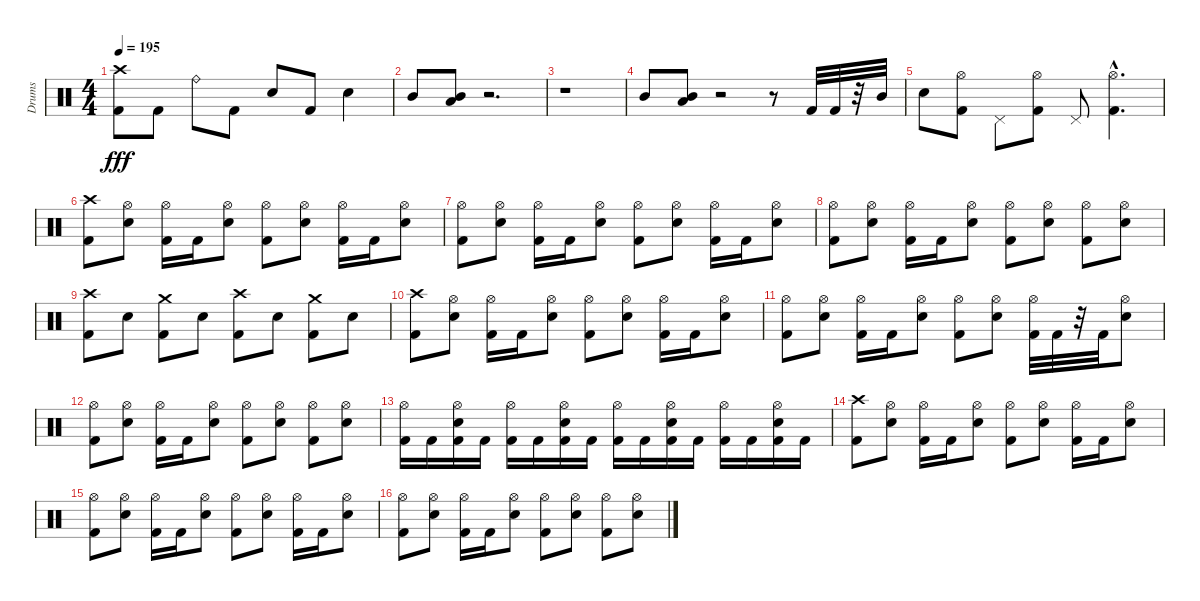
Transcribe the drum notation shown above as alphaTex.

\track ("Drums" "Drums") {instrument percussion}
\staff {score}
\articulation defaults
\ts (4 4)
\tempo 195
\clef neutral
\ks c
("Kick (hit) 2" "Crash high (hit)").8{dy fff} "Kick (hit) 2".8 "Ride (bell)".8 "Kick (hit) 2".8 "Metronome (bell)".8 "Kick (hit) 2".8 "Metronome (bell)".4 |
"Mid Tom (hit)".8 ("Low Tom (hit)" "Mid Tom (hit)").8 r.2{d} |
r.1 |
"Mid Tom (hit)".8 ("Low Tom (hit)" "Mid Tom (hit)").8 r.2 r.8 "Kick (hit) 2".32 "Kick (hit) 2".32 r.32 "Mid Tom (hit)".32 |
"Metronome (bell)".8 ("Kick (hit) 2" "Hi-Hat (open)").8 "Pedal Hi-Hat (hit)".8 ("Kick (hit) 2" "Hi-Hat (open)").8 "Pedal Hi-Hat (hit)".8 ("Kick (hit) 2" "Hi-Hat (open)"{hac}).4{d} |
("Kick (hit) 2" "Crash high (hit)").8 ("Metronome (bell)" "Hi-Hat (open)").8 ("Kick (hit) 2" "Hi-Hat (open)").16 "Kick (hit) 2".16 ("Metronome (bell)" "Hi-Hat (open)").8 ("Kick (hit) 2" "Hi-Hat (open)").8 ("Metronome (bell)" "Hi-Hat (open)").8 ("Kick (hit) 2" "Hi-Hat (open)").16 "Kick (hit) 2".16 ("Metronome (bell)" "Hi-Hat (open)").8 |
("Kick (hit) 2" "Hi-Hat (open)").8 ("Metronome (bell)" "Hi-Hat (open)").8 ("Kick (hit) 2" "Hi-Hat (open)").16 "Kick (hit) 2".16 ("Metronome (bell)" "Hi-Hat (open)").8 ("Kick (hit) 2" "Hi-Hat (open)").8 ("Metronome (bell)" "Hi-Hat (open)").8 ("Kick (hit) 2" "Hi-Hat (open)").16 "Kick (hit) 2".16 ("Metronome (bell)" "Hi-Hat (open)").8 |
("Kick (hit) 2" "Hi-Hat (open)").8 ("Metronome (bell)" "Hi-Hat (open)").8 ("Kick (hit) 2" "Hi-Hat (open)").16 "Kick (hit) 2".16 ("Metronome (bell)" "Hi-Hat (open)").8 ("Kick (hit) 2" "Hi-Hat (open)").8 ("Metronome (bell)" "Hi-Hat (open)").8 ("Kick (hit) 2" "Hi-Hat (open)").8 ("Metronome (bell)" "Hi-Hat (open)").8 |
("Kick (hit) 2" "Crash high (hit)").8 "Metronome (bell)".8 ("Kick (hit) 2" "Crash medium (hit)").8 "Metronome (bell)".8 ("Kick (hit) 2" "Crash high (hit)").8 "Metronome (bell)".8 ("Kick (hit) 2" "Crash medium (hit)").8 "Metronome (bell)".8 |
("Kick (hit) 2" "Crash high (hit)").8 ("Metronome (bell)" "Hi-Hat (open)").8 ("Kick (hit) 2" "Hi-Hat (open)").16 "Kick (hit) 2".16 ("Metronome (bell)" "Hi-Hat (open)").8 ("Kick (hit) 2" "Hi-Hat (open)").8 ("Metronome (bell)" "Hi-Hat (open)").8 ("Kick (hit) 2" "Hi-Hat (open)").16 "Kick (hit) 2".16 ("Metronome (bell)" "Hi-Hat (open)").8 |
("Kick (hit) 2" "Hi-Hat (open)").8 ("Metronome (bell)" "Hi-Hat (open)").8 ("Kick (hit) 2" "Hi-Hat (open)").16 "Kick (hit) 2".16 ("Metronome (bell)" "Hi-Hat (open)").8 ("Kick (hit) 2" "Hi-Hat (open)").8 ("Metronome (bell)" "Hi-Hat (open)").8 ("Kick (hit) 2" "Hi-Hat (open)").32 "Kick (hit) 2".32 r.32 "Kick (hit) 2".32 ("Metronome (bell)" "Hi-Hat (open)").8 |
("Kick (hit) 2" "Hi-Hat (open)").8 ("Metronome (bell)" "Hi-Hat (open)").8 ("Kick (hit) 2" "Hi-Hat (open)").16 "Kick (hit) 2".16 ("Metronome (bell)" "Hi-Hat (open)").8 ("Kick (hit) 2" "Hi-Hat (open)").8 ("Metronome (bell)" "Hi-Hat (open)").8 ("Kick (hit) 2" "Hi-Hat (open)").8 ("Metronome (bell)" "Hi-Hat (open)").8 |
("Kick (hit) 2" "Hi-Hat (open)").16 "Kick (hit) 2".16 ("Metronome (bell)" "Kick (hit) 2" "Hi-Hat (open)").16 "Kick (hit) 2".16 ("Kick (hit) 2" "Hi-Hat (open)").16 "Kick (hit) 2".16 ("Metronome (bell)" "Kick (hit) 2" "Hi-Hat (open)").16 "Kick (hit) 2".16 ("Kick (hit) 2" "Hi-Hat (open)").16 "Kick (hit) 2".16 ("Metronome (bell)" "Kick (hit) 2" "Hi-Hat (open)").16 "Kick (hit) 2".16 ("Kick (hit) 2" "Hi-Hat (open)").16 "Kick (hit) 2".16 ("Metronome (bell)" "Kick (hit) 2" "Hi-Hat (open)").16 "Kick (hit) 2".16 |
("Kick (hit) 2" "Crash high (hit)").8 ("Metronome (bell)" "Hi-Hat (open)").8 ("Kick (hit) 2" "Hi-Hat (open)").16 "Kick (hit) 2".16 ("Metronome (bell)" "Hi-Hat (open)").8 ("Kick (hit) 2" "Hi-Hat (open)").8 ("Metronome (bell)" "Hi-Hat (open)").8 ("Kick (hit) 2" "Hi-Hat (open)").16 "Kick (hit) 2".16 ("Metronome (bell)" "Hi-Hat (open)").8 |
("Kick (hit) 2" "Hi-Hat (open)").8 ("Metronome (bell)" "Hi-Hat (open)").8 ("Kick (hit) 2" "Hi-Hat (open)").16 "Kick (hit) 2".16 ("Metronome (bell)" "Hi-Hat (open)").8 ("Kick (hit) 2" "Hi-Hat (open)").8 ("Metronome (bell)" "Hi-Hat (open)").8 ("Kick (hit) 2" "Hi-Hat (open)").16 "Kick (hit) 2".16 ("Metronome (bell)" "Hi-Hat (open)").8 |
("Kick (hit) 2" "Hi-Hat (open)").8 ("Metronome (bell)" "Hi-Hat (open)").8 ("Kick (hit) 2" "Hi-Hat (open)").16 "Kick (hit) 2".16 ("Metronome (bell)" "Hi-Hat (open)").8 ("Kick (hit) 2" "Hi-Hat (open)").8 ("Metronome (bell)" "Hi-Hat (open)").8 ("Kick (hit) 2" "Hi-Hat (open)").8 ("Metronome (bell)" "Hi-Hat (open)").8
